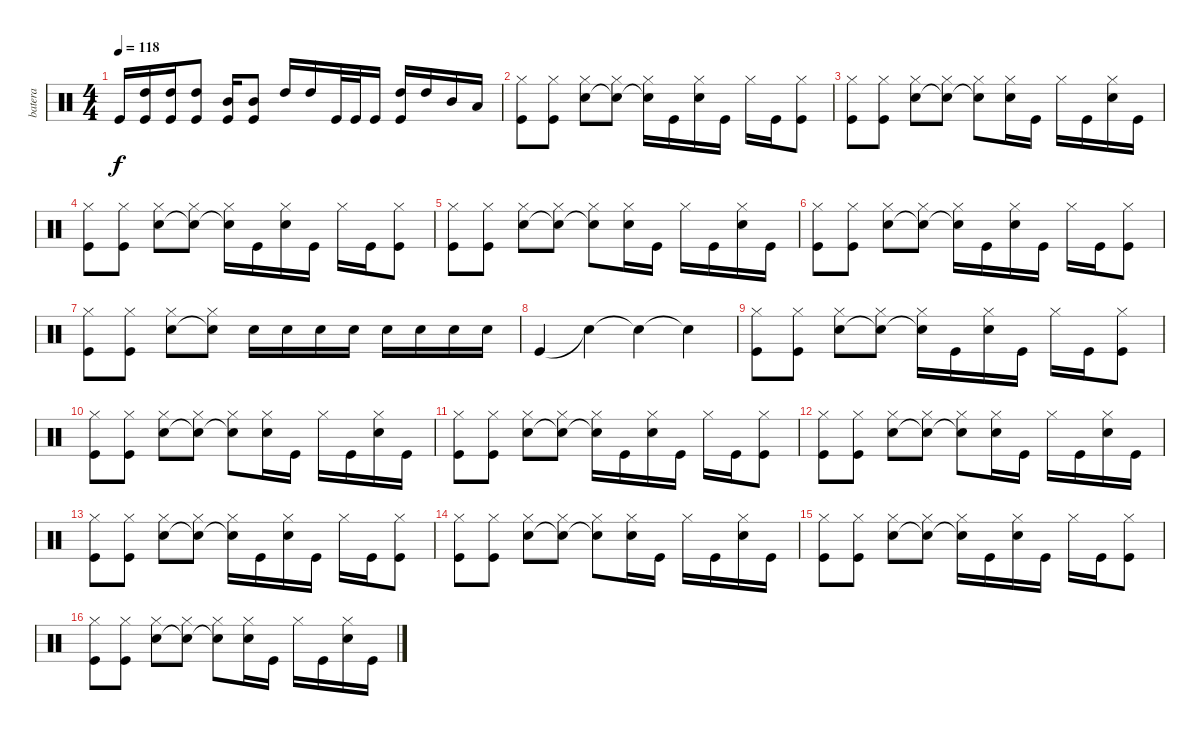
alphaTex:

\track ("batera" "batera") {instrument percussion}
\staff {score}
\articulation defaults
\ts (4 4)
\tempo 118
\clef neutral
\ks c "Kick (hit)".16{dy f}
("High Tom (hit)" "Kick (hit)").16 ("High Tom (hit)" "Kick (hit)").16 ("High Tom (hit)" "Kick (hit)").8 ("Mid Tom (hit)" "Kick (hit)").16 ("Mid Tom (hit)" "Kick (hit)").8 "High Tom (hit)".16 "High Tom (hit)".16 "Kick (hit)".32 "Kick (hit)".32 "Kick (hit)".16 ("High Tom (hit)" "Kick (hit)").16 "High Tom (hit)".16 "Mid Tom (hit)".16 "Low Tom (hit)".16 |
("Hi-Hat (closed)" "Kick (hit)").8 ("Hi-Hat (closed)" "Kick (hit)").8 ("Hi-Hat (closed)" "Snare (hit) 2").8 ("Hi-Hat (closed)" "Snare (hit)"{t}).8 ("Hi-Hat (closed)" "Snare (hit)"{t}).16 "Kick (hit)".16 ("Hi-Hat (closed)" "Snare (hit) 2").16 "Kick (hit)".16 "Hi-Hat (closed)".16 "Kick (hit)".16 ("Hi-Hat (closed)" "Kick (hit)").8 |
("Hi-Hat (closed)" "Kick (hit)").8 ("Hi-Hat (closed)" "Kick (hit)").8 ("Hi-Hat (closed)" "Snare (hit) 2").8 ("Hi-Hat (closed)" "Snare (hit)"{t}).8 ("Hi-Hat (closed)" "Snare (hit)"{t}).8 ("Hi-Hat (closed)" "Snare (hit) 2").16 "Kick (hit)".16 "Hi-Hat (closed)".16 "Kick (hit)".16 ("Hi-Hat (closed)" "Snare (hit) 2").16 "Kick (hit)".16 |
("Hi-Hat (closed)" "Kick (hit)").8 ("Hi-Hat (closed)" "Kick (hit)").8 ("Hi-Hat (closed)" "Snare (hit) 2").8 ("Hi-Hat (closed)" "Snare (hit)"{t}).8 ("Hi-Hat (closed)" "Snare (hit)"{t}).16 "Kick (hit)".16 ("Hi-Hat (closed)" "Snare (hit) 2").16 "Kick (hit)".16 "Hi-Hat (closed)".16 "Kick (hit)".16 ("Hi-Hat (closed)" "Kick (hit)").8 |
("Hi-Hat (closed)" "Kick (hit)").8 ("Hi-Hat (closed)" "Kick (hit)").8 ("Hi-Hat (closed)" "Snare (hit) 2").8 ("Hi-Hat (closed)" "Snare (hit)"{t}).8 ("Hi-Hat (closed)" "Snare (hit)"{t}).8 ("Hi-Hat (closed)" "Snare (hit) 2").16 "Kick (hit)".16 "Hi-Hat (closed)".16 "Kick (hit)".16 ("Hi-Hat (closed)" "Snare (hit) 2").16 "Kick (hit)".16 |
("Hi-Hat (closed)" "Kick (hit)").8 ("Hi-Hat (closed)" "Kick (hit)").8 ("Hi-Hat (closed)" "Snare (hit) 2").8 ("Hi-Hat (closed)" "Snare (hit)"{t}).8 ("Hi-Hat (closed)" "Snare (hit)"{t}).16 "Kick (hit)".16 ("Hi-Hat (closed)" "Snare (hit) 2").16 "Kick (hit)".16 "Hi-Hat (closed)".16 "Kick (hit)".16 ("Hi-Hat (closed)" "Kick (hit)").8 |
("Hi-Hat (closed)" "Kick (hit)").8 ("Hi-Hat (closed)" "Kick (hit)").8 ("Hi-Hat (closed)" "Snare (hit) 2").8 ("Hi-Hat (closed)" "Snare (hit)"{t}).8 "Snare (hit) 2".16 "Snare (hit) 2".16 "Snare (hit) 2".16 "Snare (hit) 2".16 "Snare (hit) 2".16 "Snare (hit) 2".16 "Snare (hit) 2".16 "Snare (hit) 2".16 |
"Kick (hit)".4 "Snare (hit)"{t}.4 "Snare (hit)"{t}.4 "Snare (hit)"{t}.4 |
\section ("" "")
("Hi-Hat (closed)" "Kick (hit)").8 ("Hi-Hat (closed)" "Kick (hit)").8 ("Hi-Hat (closed)" "Snare (hit) 2").8 ("Hi-Hat (closed)" "Snare (hit)"{t}).8 ("Hi-Hat (closed)" "Snare (hit)"{t}).16 "Kick (hit)".16 ("Hi-Hat (closed)" "Snare (hit) 2").16 "Kick (hit)".16 "Hi-Hat (closed)".16 "Kick (hit)".16 ("Hi-Hat (closed)" "Kick (hit)").8 |
("Hi-Hat (closed)" "Kick (hit)").8 ("Hi-Hat (closed)" "Kick (hit)").8 ("Hi-Hat (closed)" "Snare (hit) 2").8 ("Hi-Hat (closed)" "Snare (hit)"{t}).8 ("Hi-Hat (closed)" "Snare (hit)"{t}).8 ("Hi-Hat (closed)" "Snare (hit) 2").16 "Kick (hit)".16 "Hi-Hat (closed)".16 "Kick (hit)".16 ("Hi-Hat (closed)" "Snare (hit) 2").16 "Kick (hit)".16 |
("Hi-Hat (closed)" "Kick (hit)").8 ("Hi-Hat (closed)" "Kick (hit)").8 ("Hi-Hat (closed)" "Snare (hit) 2").8 ("Hi-Hat (closed)" "Snare (hit)"{t}).8 ("Hi-Hat (closed)" "Snare (hit)"{t}).16 "Kick (hit)".16 ("Hi-Hat (closed)" "Snare (hit) 2").16 "Kick (hit)".16 "Hi-Hat (closed)".16 "Kick (hit)".16 ("Hi-Hat (closed)" "Kick (hit)").8 |
("Hi-Hat (closed)" "Kick (hit)").8 ("Hi-Hat (closed)" "Kick (hit)").8 ("Hi-Hat (closed)" "Snare (hit) 2").8 ("Hi-Hat (closed)" "Snare (hit)"{t}).8 ("Hi-Hat (closed)" "Snare (hit)"{t}).8 ("Hi-Hat (closed)" "Snare (hit) 2").16 "Kick (hit)".16 "Hi-Hat (closed)".16 "Kick (hit)".16 ("Hi-Hat (closed)" "Snare (hit) 2").16 "Kick (hit)".16 |
("Hi-Hat (closed)" "Kick (hit)").8 ("Hi-Hat (closed)" "Kick (hit)").8 ("Hi-Hat (closed)" "Snare (hit) 2").8 ("Hi-Hat (closed)" "Snare (hit)"{t}).8 ("Hi-Hat (closed)" "Snare (hit)"{t}).16 "Kick (hit)".16 ("Hi-Hat (closed)" "Snare (hit) 2").16 "Kick (hit)".16 "Hi-Hat (closed)".16 "Kick (hit)".16 ("Hi-Hat (closed)" "Kick (hit)").8 |
("Hi-Hat (closed)" "Kick (hit)").8 ("Hi-Hat (closed)" "Kick (hit)").8 ("Hi-Hat (closed)" "Snare (hit) 2").8 ("Hi-Hat (closed)" "Snare (hit)"{t}).8 ("Hi-Hat (closed)" "Snare (hit)"{t}).8 ("Hi-Hat (closed)" "Snare (hit) 2").16 "Kick (hit)".16 "Hi-Hat (closed)".16 "Kick (hit)".16 ("Hi-Hat (closed)" "Snare (hit) 2").16 "Kick (hit)".16 |
("Hi-Hat (closed)" "Kick (hit)").8 ("Hi-Hat (closed)" "Kick (hit)").8 ("Hi-Hat (closed)" "Snare (hit) 2").8 ("Hi-Hat (closed)" "Snare (hit)"{t}).8 ("Hi-Hat (closed)" "Snare (hit)"{t}).16 "Kick (hit)".16 ("Hi-Hat (closed)" "Snare (hit) 2").16 "Kick (hit)".16 "Hi-Hat (closed)".16 "Kick (hit)".16 ("Hi-Hat (closed)" "Kick (hit)").8 |
("Hi-Hat (closed)" "Kick (hit)").8 ("Hi-Hat (closed)" "Kick (hit)").8 ("Hi-Hat (closed)" "Snare (hit) 2").8 ("Hi-Hat (closed)" "Snare (hit)"{t}).8 ("Hi-Hat (closed)" "Snare (hit)"{t}).8 ("Hi-Hat (closed)" "Snare (hit) 2").16 "Kick (hit)".16 "Hi-Hat (closed)".16 "Kick (hit)".16 ("Hi-Hat (closed)" "Snare (hit) 2").16 "Kick (hit)".16
